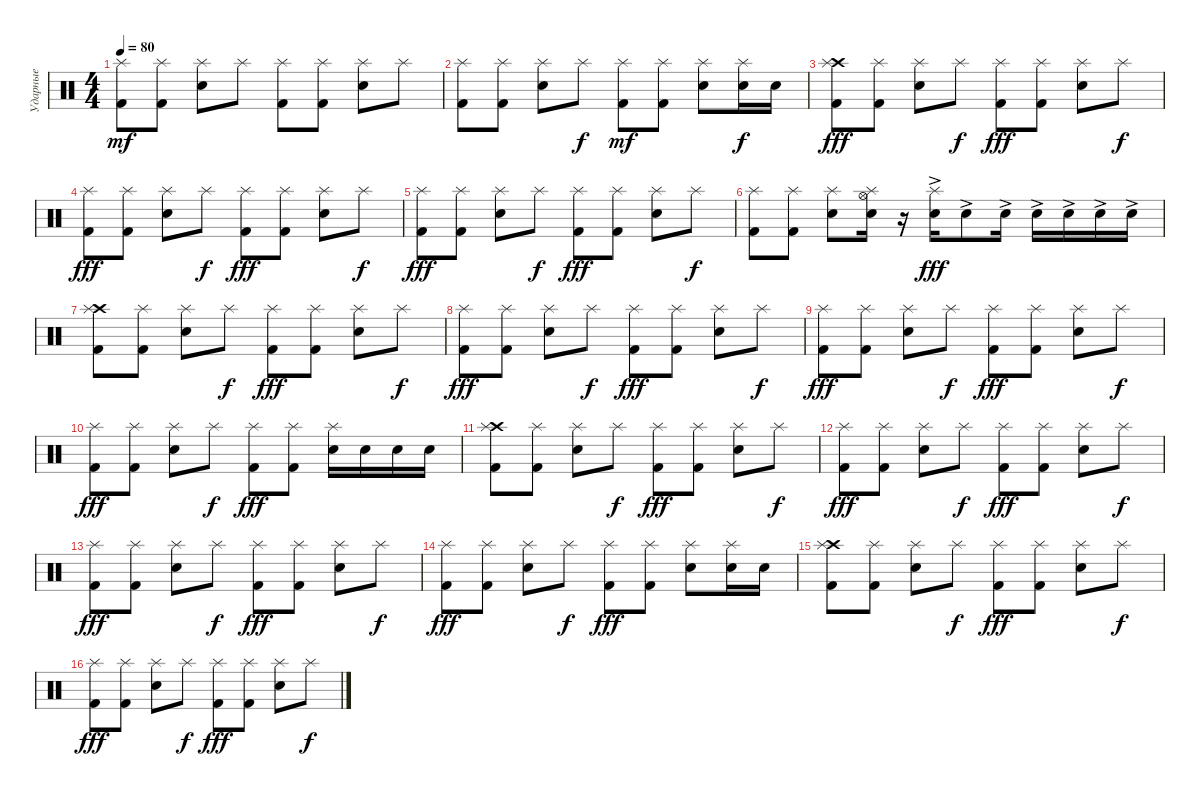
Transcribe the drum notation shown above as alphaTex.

\track ("Ударные" "Ударные") {instrument percussion}
\staff {score}
\articulation defaults
\ts (4 4)
\tempo 80
\clef neutral
\ks c
("Kick (hit) 2" "Splash (hit)").8{dy mf} ("Kick (hit) 2" "Splash (hit)").8 ("Snare (hit) 2" "Splash (hit)").8 "Splash (hit)".8 ("Kick (hit) 2" "Splash (hit)").8 ("Kick (hit) 2" "Splash (hit)").8 ("Snare (hit) 2" "Splash (hit)").8 "Splash (hit)".8 |
("Kick (hit) 2" "Splash (hit)").8 ("Kick (hit) 2" "Splash (hit)").8 ("Snare (hit) 2" "Splash (hit)").8 "Splash (hit)".8{dy f} ("Kick (hit) 2" "Splash (hit)").8{dy mf} ("Kick (hit) 2" "Splash (hit)").8 ("Snare (hit) 2" "Splash (hit)").8 ("Snare (hit) 2" "Splash (hit)").16{dy f} "Snare (hit) 2".16 |
("Crash high (hit)" "Kick (hit) 2" "Splash (hit)").8{dy fff volume 16} ("Kick (hit) 2" "Splash (hit)").8 ("Snare (hit) 2" "Splash (hit)").8 "Splash (hit)".8{dy f} ("Kick (hit) 2" "Splash (hit)").8{dy fff} ("Kick (hit) 2" "Splash (hit)").8 ("Snare (hit) 2" "Splash (hit)").8 "Splash (hit)".8{dy f} |
("Kick (hit) 2" "Splash (hit)").8{dy fff} ("Kick (hit) 2" "Splash (hit)").8 ("Snare (hit) 2" "Splash (hit)").8 "Splash (hit)".8{dy f} ("Kick (hit) 2" "Splash (hit)").8{dy fff} ("Kick (hit) 2" "Splash (hit)").8 ("Snare (hit) 2" "Splash (hit)").8 "Splash (hit)".8{dy f} |
("Kick (hit) 2" "Splash (hit)").8{dy fff} ("Kick (hit) 2" "Splash (hit)").8 ("Snare (hit) 2" "Splash (hit)").8 "Splash (hit)".8{dy f} ("Kick (hit) 2" "Splash (hit)").8{dy fff} ("Kick (hit) 2" "Splash (hit)").8 ("Snare (hit) 2" "Splash (hit)").8 "Splash (hit)".8{dy f} |
("Kick (hit) 2" "Splash (hit)").8 ("Kick (hit) 2" "Splash (hit)").8 ("Snare (hit) 2" "Splash (hit)").8 ("Electric Snare (hit)" "Hi-Hat (open)" "Splash (hit)").16 r.16 ("Snare (hit) 2"{ac} "Splash (hit)").16{dy fff} "Snare (hit) 2"{ac}.8 "Snare (hit) 2"{ac}.16 "Snare (hit) 2"{ac}.16 "Snare (hit) 2"{ac}.16 "Snare (hit) 2"{ac}.16 "Snare (hit) 2"{ac}.16 |
("Crash high (hit)" "Kick (hit) 2" "Splash (hit)").8 ("Kick (hit) 2" "Splash (hit)").8 ("Snare (hit) 2" "Splash (hit)").8 "Splash (hit)".8{dy f} ("Kick (hit) 2" "Splash (hit)").8{dy fff} ("Kick (hit) 2" "Splash (hit)").8 ("Snare (hit) 2" "Splash (hit)").8 "Splash (hit)".8{dy f} |
("Kick (hit) 2" "Splash (hit)").8{dy fff} ("Kick (hit) 2" "Splash (hit)").8 ("Snare (hit) 2" "Splash (hit)").8 "Splash (hit)".8{dy f} ("Kick (hit) 2" "Splash (hit)").8{dy fff} ("Kick (hit) 2" "Splash (hit)").8 ("Snare (hit) 2" "Splash (hit)").8 "Splash (hit)".8{dy f} |
("Kick (hit) 2" "Splash (hit)").8{dy fff} ("Kick (hit) 2" "Splash (hit)").8 ("Snare (hit) 2" "Splash (hit)").8 "Splash (hit)".8{dy f} ("Kick (hit) 2" "Splash (hit)").8{dy fff} ("Kick (hit) 2" "Splash (hit)").8 ("Snare (hit) 2" "Splash (hit)").8 "Splash (hit)".8{dy f} |
("Kick (hit) 2" "Splash (hit)").8{dy fff} ("Kick (hit) 2" "Splash (hit)").8 ("Snare (hit) 2" "Splash (hit)").8 "Splash (hit)".8{dy f} ("Kick (hit) 2" "Splash (hit)").8{dy fff} ("Kick (hit) 2" "Splash (hit)").8 ("Snare (hit) 2" "Splash (hit)").16 "Snare (hit) 2".16 "Snare (hit) 2".16 "Snare (hit) 2".16 |
("Crash high (hit)" "Kick (hit) 2" "Splash (hit)").8 ("Kick (hit) 2" "Splash (hit)").8 ("Snare (hit) 2" "Splash (hit)").8 "Splash (hit)".8{dy f} ("Kick (hit) 2" "Splash (hit)").8{dy fff} ("Kick (hit) 2" "Splash (hit)").8 ("Snare (hit) 2" "Splash (hit)").8 "Splash (hit)".8{dy f} |
("Kick (hit) 2" "Splash (hit)").8{dy fff} ("Kick (hit) 2" "Splash (hit)").8 ("Snare (hit) 2" "Splash (hit)").8 "Splash (hit)".8{dy f} ("Kick (hit) 2" "Splash (hit)").8{dy fff} ("Kick (hit) 2" "Splash (hit)").8 ("Snare (hit) 2" "Splash (hit)").8 "Splash (hit)".8{dy f} |
("Kick (hit) 2" "Splash (hit)").8{dy fff} ("Kick (hit) 2" "Splash (hit)").8 ("Snare (hit) 2" "Splash (hit)").8 "Splash (hit)".8{dy f} ("Kick (hit) 2" "Splash (hit)").8{dy fff} ("Kick (hit) 2" "Splash (hit)").8 ("Snare (hit) 2" "Splash (hit)").8 "Splash (hit)".8{dy f} |
("Kick (hit) 2" "Splash (hit)").8{dy fff} ("Kick (hit) 2" "Splash (hit)").8 ("Snare (hit) 2" "Splash (hit)").8 "Splash (hit)".8{dy f} ("Kick (hit) 2" "Splash (hit)").8{dy fff} ("Kick (hit) 2" "Splash (hit)").8 ("Snare (hit) 2" "Splash (hit)").8 ("Electric Snare (hit)" "Splash (hit)").16 "Electric Snare (hit)".16 |
("Crash high (hit)" "Kick (hit) 2" "Splash (hit)").8 ("Kick (hit) 2" "Splash (hit)").8 ("Snare (hit) 2" "Splash (hit)").8 "Splash (hit)".8{dy f} ("Kick (hit) 2" "Splash (hit)").8{dy fff} ("Kick (hit) 2" "Splash (hit)").8 ("Snare (hit) 2" "Splash (hit)").8 "Splash (hit)".8{dy f} |
("Kick (hit) 2" "Splash (hit)").8{dy fff} ("Kick (hit) 2" "Splash (hit)").8 ("Snare (hit) 2" "Splash (hit)").8 "Splash (hit)".8{dy f} ("Kick (hit) 2" "Splash (hit)").8{dy fff} ("Kick (hit) 2" "Splash (hit)").8 ("Snare (hit) 2" "Splash (hit)").8 "Splash (hit)".8{dy f}
